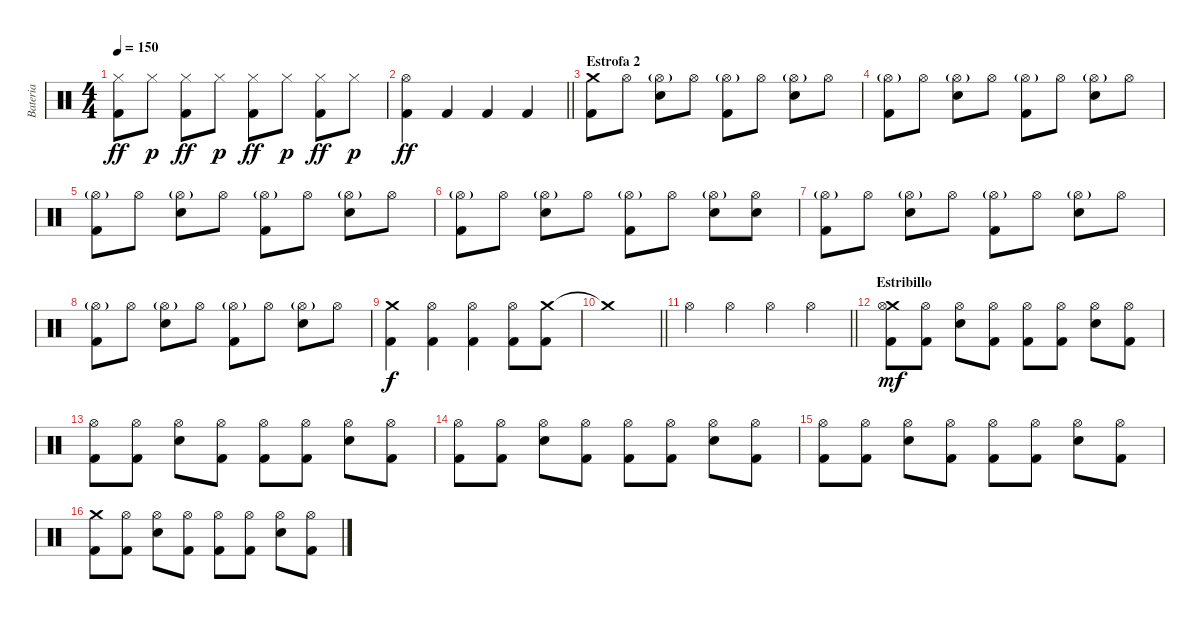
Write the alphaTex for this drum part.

\track ("Bateria" "Bateria") {instrument percussion}
\staff {score}
\articulation defaults
\ts (4 4)
\tempo 150
\clef neutral
\ks c
("Hi-Hat (closed)" "Kick (hit) 2").8{dy ff} "Hi-Hat (closed)".8{dy p} ("Hi-Hat (closed)" "Kick (hit) 2").8{dy ff} "Hi-Hat (closed)".8{dy p} ("Hi-Hat (closed)" "Kick (hit) 2").8{dy ff} "Hi-Hat (closed)".8{dy p} ("Hi-Hat (closed)" "Kick (hit) 2").8{dy ff} "Hi-Hat (closed)".8{dy p} |
\barLineRight lightlight
("Hi-Hat (open)" "Kick (hit) 2").4{dy ff} "Kick (hit) 2".4 "Kick (hit) 2".4 "Kick (hit) 2".4 |
\section ("" "Estrofa 2")
("Crash medium (hit)" "Kick (hit) 2").8 "Hi-Hat (open)".8 ("Hi-Hat (open)"{g} "Snare (hit) 2").8 "Hi-Hat (open)".8 ("Hi-Hat (open)"{g} "Kick (hit) 2").8 "Hi-Hat (open)".8 ("Hi-Hat (open)"{g} "Snare (hit) 2").8 "Hi-Hat (open)".8 |
("Hi-Hat (open)"{g} "Kick (hit) 2").8 "Hi-Hat (open)".8 ("Hi-Hat (open)"{g} "Snare (hit) 2").8 "Hi-Hat (open)".8 ("Hi-Hat (open)"{g} "Kick (hit) 2").8 "Hi-Hat (open)".8 ("Hi-Hat (open)"{g} "Snare (hit) 2").8 "Hi-Hat (open)".8 |
("Hi-Hat (open)"{g} "Kick (hit) 2").8 "Hi-Hat (open)".8 ("Hi-Hat (open)"{g} "Snare (hit) 2").8 "Hi-Hat (open)".8 ("Hi-Hat (open)"{g} "Kick (hit) 2").8 "Hi-Hat (open)".8 ("Hi-Hat (open)"{g} "Snare (hit) 2").8 "Hi-Hat (open)".8 |
("Hi-Hat (open)"{g} "Kick (hit) 2").8 "Hi-Hat (open)".8 ("Hi-Hat (open)"{g} "Snare (hit) 2").8 "Hi-Hat (open)".8 ("Hi-Hat (open)"{g} "Kick (hit) 2").8 "Hi-Hat (open)".8 ("Hi-Hat (open)"{g} "Snare (hit) 2").8 ("Hi-Hat (open)" "Snare (hit) 2").8 |
("Hi-Hat (open)"{g} "Kick (hit) 2").8 "Hi-Hat (open)".8 ("Hi-Hat (open)"{g} "Snare (hit) 2").8 "Hi-Hat (open)".8 ("Hi-Hat (open)"{g} "Kick (hit) 2").8 "Hi-Hat (open)".8 ("Hi-Hat (open)"{g} "Snare (hit) 2").8 "Hi-Hat (open)".8 |
("Hi-Hat (open)"{g} "Kick (hit) 2").8 "Hi-Hat (open)".8 ("Hi-Hat (open)"{g} "Snare (hit) 2").8 "Hi-Hat (open)".8 ("Hi-Hat (open)"{g} "Kick (hit) 2").8 "Hi-Hat (open)".8 ("Hi-Hat (open)"{g} "Snare (hit) 2").8 "Hi-Hat (open)".8 |
("Crash medium (hit)" "Kick (hit) 2").4{dy f} ("Hi-Hat (open)" "Kick (hit) 2").4 ("Hi-Hat (open)" "Kick (hit) 2").4 ("Hi-Hat (open)" "Kick (hit) 2").8 ("Crash medium (hit)" "Kick (hit) 2").8 |
\barLineRight lightlight "Crash medium (hit)"{t}.1
|
\barLineRight lightlight "Hi-Hat (open)".4 "Hi-Hat (open)".4 "Hi-Hat (open)".4 "Hi-Hat (open)".4
|
\section ("" "Estribillo")
("Crash medium (hit)" "Hi-Hat (open)" "Kick (hit) 2").8{dy mf} ("Hi-Hat (open)" "Kick (hit) 2").8 ("Hi-Hat (open)" "Snare (hit) 2").8 ("Hi-Hat (open)" "Kick (hit) 2").8 ("Hi-Hat (open)" "Kick (hit) 2").8 ("Hi-Hat (open)" "Kick (hit) 2").8 ("Hi-Hat (open)" "Snare (hit) 2").8 ("Hi-Hat (open)" "Kick (hit) 2").8 |
("Hi-Hat (open)" "Kick (hit) 2").8 ("Hi-Hat (open)" "Kick (hit) 2").8 ("Hi-Hat (open)" "Snare (hit) 2").8 ("Hi-Hat (open)" "Kick (hit) 2").8 ("Hi-Hat (open)" "Kick (hit) 2").8 ("Hi-Hat (open)" "Kick (hit) 2").8 ("Hi-Hat (open)" "Snare (hit) 2").8 ("Hi-Hat (open)" "Kick (hit) 2").8 |
("Hi-Hat (open)" "Kick (hit) 2").8 ("Hi-Hat (open)" "Kick (hit) 2").8 ("Hi-Hat (open)" "Snare (hit) 2").8 ("Hi-Hat (open)" "Kick (hit) 2").8 ("Hi-Hat (open)" "Kick (hit) 2").8 ("Hi-Hat (open)" "Kick (hit) 2").8 ("Hi-Hat (open)" "Snare (hit) 2").8 ("Hi-Hat (open)" "Kick (hit) 2").8 |
("Hi-Hat (open)" "Kick (hit) 2").8 ("Hi-Hat (open)" "Kick (hit) 2").8 ("Hi-Hat (open)" "Snare (hit) 2").8 ("Hi-Hat (open)" "Kick (hit) 2").8 ("Hi-Hat (open)" "Kick (hit) 2").8 ("Hi-Hat (open)" "Kick (hit) 2").8 ("Hi-Hat (open)" "Snare (hit) 2").8 ("Hi-Hat (open)" "Kick (hit) 2").8 |
("Crash medium (hit)" "Kick (hit) 2").8 ("Hi-Hat (open)" "Kick (hit) 2").8 ("Hi-Hat (open)" "Snare (hit) 2").8 ("Hi-Hat (open)" "Kick (hit) 2").8 ("Hi-Hat (open)" "Kick (hit) 2").8 ("Hi-Hat (open)" "Kick (hit) 2").8 ("Hi-Hat (open)" "Snare (hit) 2").8 ("Hi-Hat (open)" "Kick (hit) 2").8
